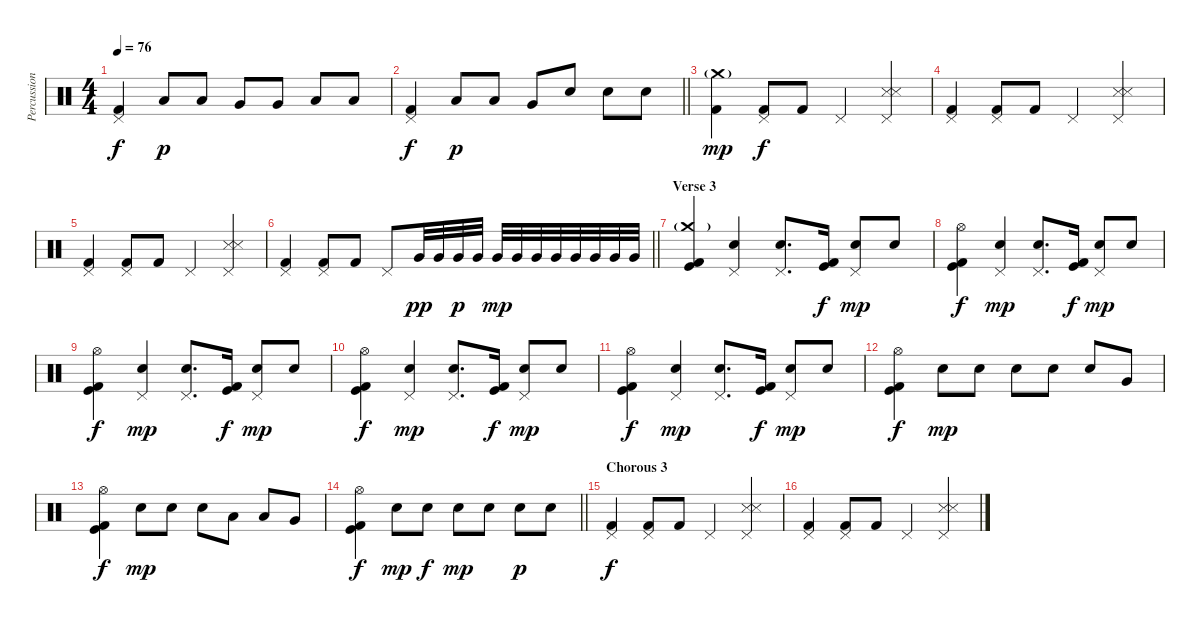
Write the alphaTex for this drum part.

\track ("Percussion" "Percussion") {instrument percussion}
\staff {score}
\articulation defaults
\ts (4 4)
\tempo 76
\clef neutral
\ks c
("Pedal Hi-Hat (hit)" "Kick (hit) 2").4{dy f} "Low Tom (hit)".8{dy p} "Low Tom (hit)".8 "Very Low Tom (hit)".8 "Very Low Tom (hit)".8 "Low Floor Tom (hit)".8 "Low Floor Tom (hit)".8 |
\barLineRight lightlight
("Pedal Hi-Hat (hit)" "Kick (hit) 2").4{dy f} "Low Tom (hit)".8{dy p} "Low Tom (hit)".8 "Very Low Tom (hit)".8 "Electric Snare (hit)".8 "Electric Snare (hit)".8 "Electric Snare (hit)".8 |
\section ("" "")
("Crash medium (hit)"{g} "Kick (hit) 2").4{dy mp} ("Pedal Hi-Hat (hit)" "Kick (hit) 2").8{dy f} "Kick (hit) 2".8 "Pedal Hi-Hat (hit)".4 ("Pedal Hi-Hat (hit)" "Snare (side stick) 3" "Snare (side stick) 3").4 |
("Pedal Hi-Hat (hit)" "Kick (hit) 2").4 ("Pedal Hi-Hat (hit)" "Kick (hit) 2").8 "Kick (hit) 2".8 "Pedal Hi-Hat (hit)".4 ("Pedal Hi-Hat (hit)" "Snare (side stick) 3" "Snare (side stick) 3").4 |
("Pedal Hi-Hat (hit)" "Kick (hit) 2").4 ("Pedal Hi-Hat (hit)" "Kick (hit) 2").8 "Kick (hit) 2".8 "Pedal Hi-Hat (hit)".4 ("Pedal Hi-Hat (hit)" "Snare (side stick) 3" "Snare (side stick) 3").4 |
\barLineRight lightlight
("Pedal Hi-Hat (hit)" "Kick (hit) 2").4 ("Pedal Hi-Hat (hit)" "Kick (hit) 2").8 "Kick (hit) 2".8 "Pedal Hi-Hat (hit)".8 "Very Low Tom (hit)".32{dy pp} "Very Low Tom (hit)".32 "Very Low Tom (hit)".32{dy p} "Very Low Tom (hit)".32 "Very Low Tom (hit)".32{dy mp} "Very Low Tom (hit)".32 "Very Low Tom (hit)".32 "Very Low Tom (hit)".32 "Very Low Tom (hit)".32 "Very Low Tom (hit)".32 "Very Low Tom (hit)".32 "Very Low Tom (hit)".32 |
\section ("" "Verse 3")
("Crash medium (hit)"{g} "Kick (hit)" "Kick (hit) 2").4 ("Pedal Hi-Hat (hit)" "Electric Snare (hit)").4 ("Pedal Hi-Hat (hit)" "Electric Snare (hit)").8{d} ("Kick (hit)" "Kick (hit) 2").16{dy f} ("Pedal Hi-Hat (hit)" "Electric Snare (hit)").8{dy mp} "Electric Snare (hit)".8 |
("Hi-Hat (open)" "Kick (hit)" "Kick (hit) 2").4{dy f} ("Pedal Hi-Hat (hit)" "Electric Snare (hit)").4{dy mp} ("Pedal Hi-Hat (hit)" "Electric Snare (hit)").8{d} ("Kick (hit)" "Kick (hit) 2").16{dy f} ("Pedal Hi-Hat (hit)" "Electric Snare (hit)").8{dy mp} "Electric Snare (hit)".8 |
("Hi-Hat (open)" "Kick (hit)" "Kick (hit) 2").4{dy f} ("Pedal Hi-Hat (hit)" "Electric Snare (hit)").4{dy mp} ("Pedal Hi-Hat (hit)" "Electric Snare (hit)").8{d} ("Kick (hit)" "Kick (hit) 2").16{dy f} ("Pedal Hi-Hat (hit)" "Electric Snare (hit)").8{dy mp} "Electric Snare (hit)".8 |
("Hi-Hat (open)" "Kick (hit)" "Kick (hit) 2").4{dy f} ("Pedal Hi-Hat (hit)" "Electric Snare (hit)").4{dy mp} ("Pedal Hi-Hat (hit)" "Electric Snare (hit)").8{d} ("Kick (hit)" "Kick (hit) 2").16{dy f} ("Pedal Hi-Hat (hit)" "Electric Snare (hit)").8{dy mp} "Electric Snare (hit)".8 |
("Hi-Hat (open)" "Kick (hit)" "Kick (hit) 2").4{dy f} ("Pedal Hi-Hat (hit)" "Electric Snare (hit)").4{dy mp} ("Pedal Hi-Hat (hit)" "Electric Snare (hit)").8{d} ("Kick (hit)" "Kick (hit) 2").16{dy f} ("Pedal Hi-Hat (hit)" "Electric Snare (hit)").8{dy mp} "Electric Snare (hit)".8 |
("Hi-Hat (open)" "Kick (hit)" "Kick (hit) 2").4{dy f} "Electric Snare (hit)".8{dy mp} "Electric Snare (hit)".8 "Electric Snare (hit)".8 "Electric Snare (hit)".8 "Electric Snare (hit)".8 "Very Low Tom (hit)".8 |
("Hi-Hat (open)" "Kick (hit)" "Kick (hit) 2").4{dy f} "Electric Snare (hit)".8{dy mp} "Electric Snare (hit)".8 "Electric Snare (hit)".8 "Low Tom (hit)".8 "Low Tom (hit)".8 "Very Low Tom (hit)".8 |
\barLineRight lightlight
("Hi-Hat (open)" "Kick (hit)" "Kick (hit) 2").4{dy f} "Electric Snare (hit)".8{dy mp} "Electric Snare (hit)".8{dy f} "Electric Snare (hit)".8{dy mp} "Electric Snare (hit)".8 "Electric Snare (hit)".8{dy p} "Electric Snare (hit)".8 |
\section ("" "Chorous 3")
("Pedal Hi-Hat (hit)" "Kick (hit) 2").4{dy f} ("Pedal Hi-Hat (hit)" "Kick (hit) 2").8 "Kick (hit) 2".8 "Pedal Hi-Hat (hit)".4 ("Pedal Hi-Hat (hit)" "Snare (side stick) 3" "Snare (side stick) 3").4 |
("Pedal Hi-Hat (hit)" "Kick (hit) 2").4 ("Pedal Hi-Hat (hit)" "Kick (hit) 2").8 "Kick (hit) 2".8 "Pedal Hi-Hat (hit)".4 ("Pedal Hi-Hat (hit)" "Snare (side stick) 3" "Snare (side stick) 3").4
